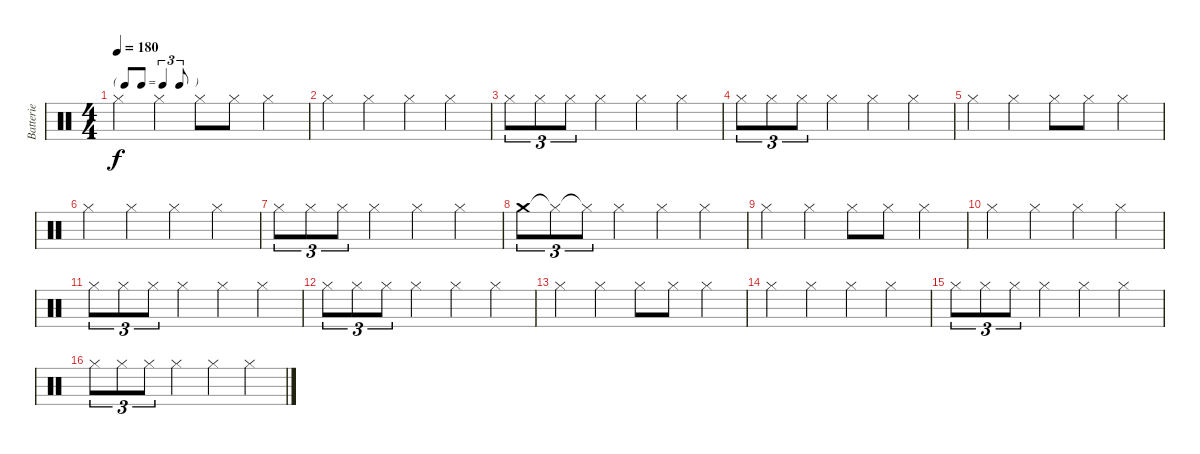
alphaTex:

\track ("Batterie" "Batterie") {instrument percussion}
\staff {score}
\articulation defaults
\ts (4 4)
\tf triplet8th
\tempo 180
\clef neutral
\ks c "Hi-Hat (closed)".4{dy f} "Hi-Hat (closed)".4 "Hi-Hat (closed)".8 "Hi-Hat (closed)".8 "Hi-Hat (closed)".4
|
"Hi-Hat (closed)".4 "Hi-Hat (closed)".4 "Hi-Hat (closed)".4 "Hi-Hat (closed)".4 |
"Hi-Hat (closed)".8{tu (3 2)} "Hi-Hat (closed)".8{tu (3 2)} "Hi-Hat (closed)".8{tu (3 2)} "Hi-Hat (closed)".4 "Hi-Hat (closed)".4 "Hi-Hat (closed)".4 |
"Hi-Hat (closed)".8{tu (3 2)} "Hi-Hat (closed)".8{tu (3 2)} "Hi-Hat (closed)".8{tu (3 2)} "Hi-Hat (closed)".4 "Hi-Hat (closed)".4 "Hi-Hat (closed)".4 |
"Hi-Hat (closed)".4 "Hi-Hat (closed)".4 "Hi-Hat (closed)".8 "Hi-Hat (closed)".8 "Hi-Hat (closed)".4 |
"Hi-Hat (closed)".4 "Hi-Hat (closed)".4 "Hi-Hat (closed)".4 "Hi-Hat (closed)".4 |
"Hi-Hat (closed)".8{tu (3 2)} "Hi-Hat (closed)".8{tu (3 2)} "Hi-Hat (closed)".8{tu (3 2)} "Hi-Hat (closed)".4 "Hi-Hat (closed)".4 "Hi-Hat (closed)".4 |
"Crash medium (hit)".8{tu (3 2)} "Hi-Hat (closed)"{t}.8{tu (3 2)} "Hi-Hat (closed)"{t}.8{tu (3 2)} "Hi-Hat (closed)".4 "Hi-Hat (closed)".4 "Hi-Hat (closed)".4 |
"Hi-Hat (closed)".4 "Hi-Hat (closed)".4 "Hi-Hat (closed)".8 "Hi-Hat (closed)".8 "Hi-Hat (closed)".4 |
"Hi-Hat (closed)".4 "Hi-Hat (closed)".4 "Hi-Hat (closed)".4 "Hi-Hat (closed)".4 |
"Hi-Hat (closed)".8{tu (3 2)} "Hi-Hat (closed)".8{tu (3 2)} "Hi-Hat (closed)".8{tu (3 2)} "Hi-Hat (closed)".4 "Hi-Hat (closed)".4 "Hi-Hat (closed)".4 |
"Hi-Hat (closed)".8{tu (3 2)} "Hi-Hat (closed)".8{tu (3 2)} "Hi-Hat (closed)".8{tu (3 2)} "Hi-Hat (closed)".4 "Hi-Hat (closed)".4 "Hi-Hat (closed)".4 |
"Hi-Hat (closed)".4 "Hi-Hat (closed)".4 "Hi-Hat (closed)".8 "Hi-Hat (closed)".8 "Hi-Hat (closed)".4 |
"Hi-Hat (closed)".4 "Hi-Hat (closed)".4 "Hi-Hat (closed)".4 "Hi-Hat (closed)".4 |
"Hi-Hat (closed)".8{tu (3 2)} "Hi-Hat (closed)".8{tu (3 2)} "Hi-Hat (closed)".8{tu (3 2)} "Hi-Hat (closed)".4 "Hi-Hat (closed)".4 "Hi-Hat (closed)".4 |
"Hi-Hat (closed)".8{tu (3 2)} "Hi-Hat (closed)".8{tu (3 2)} "Hi-Hat (closed)".8{tu (3 2)} "Hi-Hat (closed)".4 "Hi-Hat (closed)".4 "Hi-Hat (closed)".4
